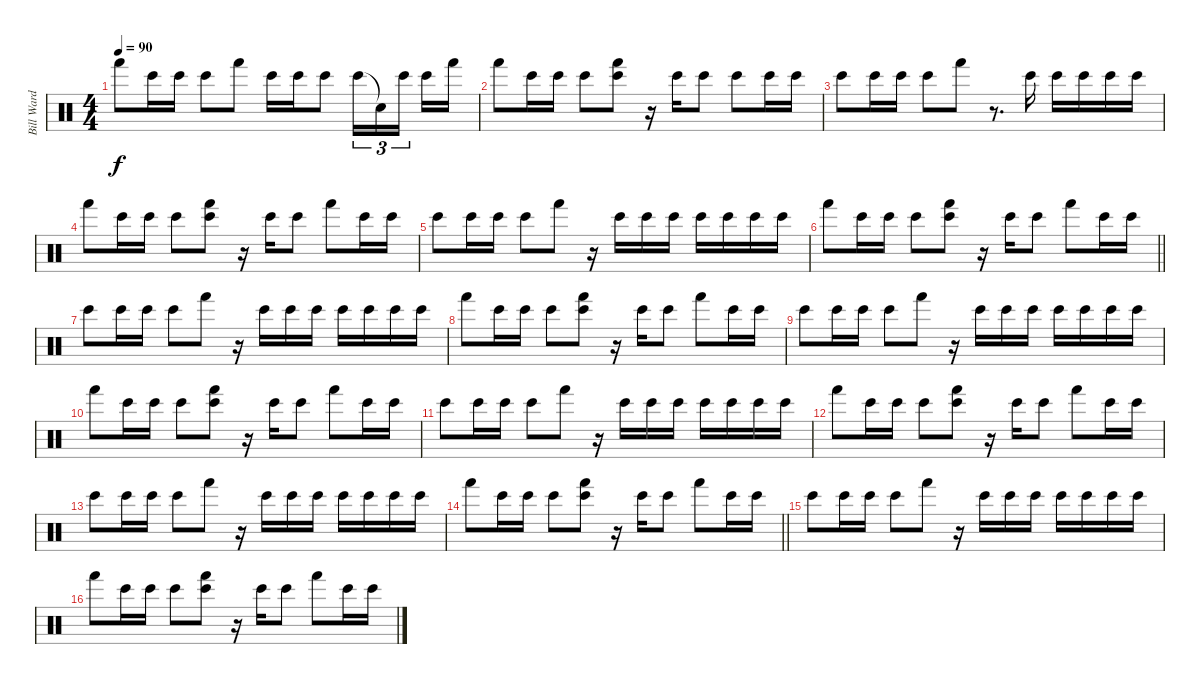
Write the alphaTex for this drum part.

\track ("Bill Ward" "Bill Ward") {instrument percussion}
\staff {score}
\articulation defaults
\ts (4 4)
\tempo 90
\clef neutral
\ks c "Hand (hit)".8{dy f} "Bongo High (hit)".16 "Bongo High (hit)".16 "Bongo High (hit)".8 "Hand (hit)".8 "Bongo High (hit)".16 "Bongo High (hit)".16 "Bongo High (hit)".8 "Bongo High (hit)".16{tu (3 2)} "Snare (hit)"{t}.16{tu (3 2)} "Bongo High (hit)".16{tu (3 2) beam splitsecondary} "Bongo High (hit)".16 "Hand (hit)".16
|
"Hand (hit)".8 "Bongo High (hit)".16 "Bongo High (hit)".16 "Bongo High (hit)".8 ("Bongo High (hit)" "Hand (hit)").8 r.16 "Bongo High (hit)".16 "Bongo High (hit)".8 "Bongo High (hit)".8 "Bongo High (hit)".16 "Bongo High (hit)".16 |
"Bongo High (hit)".8 "Bongo High (hit)".16 "Bongo High (hit)".16 "Bongo High (hit)".8 "Hand (hit)".8 r.8{d} "Bongo High (hit)".16 "Bongo High (hit)".16 "Bongo High (hit)".16 "Bongo High (hit)".16 "Bongo High (hit)".16 |
"Hand (hit)".8 "Bongo High (hit)".16 "Bongo High (hit)".16 "Bongo High (hit)".8 ("Bongo High (hit)" "Hand (hit)").8 r.16 "Bongo High (hit)".16 "Bongo High (hit)".8 "Hand (hit)".8 "Bongo High (hit)".16 "Bongo High (hit)".16 |
"Bongo High (hit)".8 "Bongo High (hit)".16 "Bongo High (hit)".16 "Bongo High (hit)".8 "Hand (hit)".8 r.16 "Bongo High (hit)".16 "Bongo High (hit)".16 "Bongo High (hit)".16 "Bongo High (hit)".16 "Bongo High (hit)".16 "Bongo High (hit)".16 "Bongo High (hit)".16 |
\barLineRight lightlight "Hand (hit)".8 "Bongo High (hit)".16 "Bongo High (hit)".16 "Bongo High (hit)".8
("Bongo High (hit)" "Hand (hit)").8 r.16 "Bongo High (hit)".16 "Bongo High (hit)".8 "Hand (hit)".8 "Bongo High (hit)".16 "Bongo High (hit)".16 |
"Bongo High (hit)".8 "Bongo High (hit)".16 "Bongo High (hit)".16 "Bongo High (hit)".8 "Hand (hit)".8 r.16 "Bongo High (hit)".16 "Bongo High (hit)".16 "Bongo High (hit)".16 "Bongo High (hit)".16 "Bongo High (hit)".16 "Bongo High (hit)".16 "Bongo High (hit)".16 |
"Hand (hit)".8 "Bongo High (hit)".16 "Bongo High (hit)".16 "Bongo High (hit)".8 ("Bongo High (hit)" "Hand (hit)").8 r.16 "Bongo High (hit)".16 "Bongo High (hit)".8 "Hand (hit)".8 "Bongo High (hit)".16 "Bongo High (hit)".16 |
"Bongo High (hit)".8 "Bongo High (hit)".16 "Bongo High (hit)".16 "Bongo High (hit)".8 "Hand (hit)".8 r.16 "Bongo High (hit)".16 "Bongo High (hit)".16 "Bongo High (hit)".16 "Bongo High (hit)".16 "Bongo High (hit)".16 "Bongo High (hit)".16 "Bongo High (hit)".16 |
"Hand (hit)".8 "Bongo High (hit)".16 "Bongo High (hit)".16 "Bongo High (hit)".8 ("Bongo High (hit)" "Hand (hit)").8 r.16 "Bongo High (hit)".16 "Bongo High (hit)".8 "Hand (hit)".8 "Bongo High (hit)".16 "Bongo High (hit)".16 |
"Bongo High (hit)".8 "Bongo High (hit)".16 "Bongo High (hit)".16 "Bongo High (hit)".8 "Hand (hit)".8 r.16 "Bongo High (hit)".16 "Bongo High (hit)".16 "Bongo High (hit)".16 "Bongo High (hit)".16 "Bongo High (hit)".16 "Bongo High (hit)".16 "Bongo High (hit)".16 |
"Hand (hit)".8 "Bongo High (hit)".16 "Bongo High (hit)".16 "Bongo High (hit)".8 ("Bongo High (hit)" "Hand (hit)").8 r.16 "Bongo High (hit)".16 "Bongo High (hit)".8 "Hand (hit)".8 "Bongo High (hit)".16 "Bongo High (hit)".16 |
"Bongo High (hit)".8{volume 0} "Bongo High (hit)".16 "Bongo High (hit)".16 "Bongo High (hit)".8 "Hand (hit)".8 r.16 "Bongo High (hit)".16 "Bongo High (hit)".16 "Bongo High (hit)".16 "Bongo High (hit)".16 "Bongo High (hit)".16 "Bongo High (hit)".16 "Bongo High (hit)".16 |
\barLineRight lightlight "Hand (hit)".8 "Bongo High (hit)".16 "Bongo High (hit)".16 "Bongo High (hit)".8
("Bongo High (hit)" "Hand (hit)").8 r.16 "Bongo High (hit)".16 "Bongo High (hit)".8 "Hand (hit)".8 "Bongo High (hit)".16 "Bongo High (hit)".16 |
"Bongo High (hit)".8 "Bongo High (hit)".16 "Bongo High (hit)".16 "Bongo High (hit)".8 "Hand (hit)".8 r.16 "Bongo High (hit)".16 "Bongo High (hit)".16 "Bongo High (hit)".16 "Bongo High (hit)".16 "Bongo High (hit)".16 "Bongo High (hit)".16 "Bongo High (hit)".16 |
"Hand (hit)".8 "Bongo High (hit)".16 "Bongo High (hit)".16 "Bongo High (hit)".8 ("Bongo High (hit)" "Hand (hit)").8 r.16 "Bongo High (hit)".16 "Bongo High (hit)".8 "Hand (hit)".8 "Bongo High (hit)".16 "Bongo High (hit)".16
